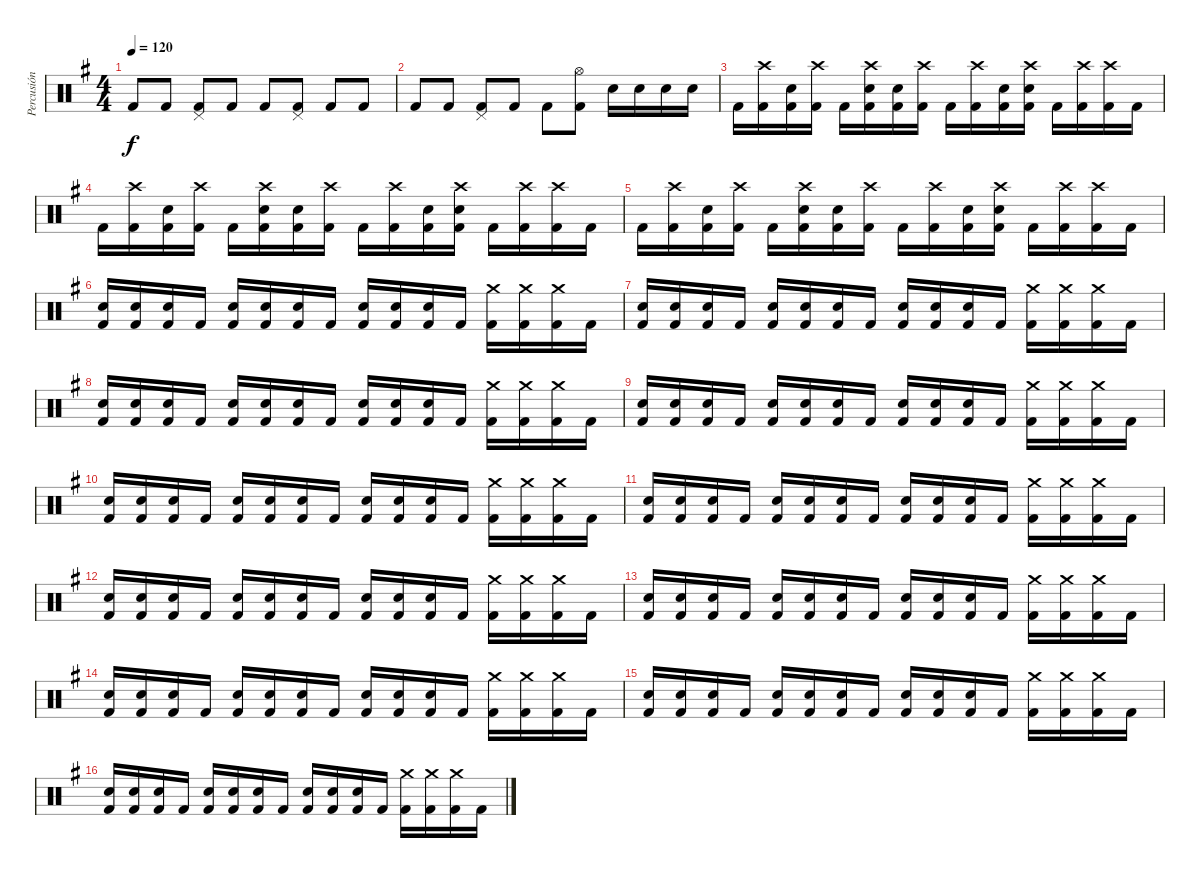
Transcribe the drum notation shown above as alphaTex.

\track ("Percusión" "Percusión") {instrument percussion}
\staff {score}
\articulation defaults
\ts (4 4)
\tempo 120
\clef neutral
\ks g "Kick (hit) 2".8{dy f} "Kick (hit) 2".8
("Pedal Hi-Hat (hit)" "Kick (hit) 2").8 "Kick (hit) 2".8 "Kick (hit) 2".8 ("Pedal Hi-Hat (hit)" "Kick (hit) 2").8 "Kick (hit) 2".8 "Kick (hit) 2".8 |
"Kick (hit) 2".8 "Kick (hit) 2".8 ("Pedal Hi-Hat (hit)" "Kick (hit) 2").8 "Kick (hit) 2".8 "Kick (hit) 2".8 ("Hi-Hat (open)" "Kick (hit) 2").8 "Electric Snare (hit)".16 "Electric Snare (hit)".16 "Electric Snare (hit)".16 "Electric Snare (hit)".16 |
"Kick (hit) 2".16 ("Crash high (hit)" "Kick (hit) 2").16 ("Snare (hit) 2" "Kick (hit) 2").16 ("Crash high (hit)" "Kick (hit) 2").16 "Kick (hit) 2".16 ("Crash high (hit)" "Snare (hit) 2" "Kick (hit) 2").16 ("Snare (hit) 2" "Kick (hit) 2").16 ("Crash high (hit)" "Kick (hit) 2").16 "Kick (hit) 2".16 ("Crash high (hit)" "Kick (hit) 2").16 ("Snare (hit) 2" "Kick (hit) 2").16 ("Crash high (hit)" "Snare (hit) 2" "Kick (hit) 2").16 "Kick (hit) 2".16 ("Crash high (hit)" "Kick (hit) 2").16 ("Crash high (hit)" "Kick (hit) 2").16 "Kick (hit) 2".16 |
"Kick (hit) 2".16 ("Crash high (hit)" "Kick (hit) 2").16 ("Snare (hit) 2" "Kick (hit) 2").16 ("Crash high (hit)" "Kick (hit) 2").16 "Kick (hit) 2".16 ("Crash high (hit)" "Snare (hit) 2" "Kick (hit) 2").16 ("Snare (hit) 2" "Kick (hit) 2").16 ("Crash high (hit)" "Kick (hit) 2").16 "Kick (hit) 2".16 ("Crash high (hit)" "Kick (hit) 2").16 ("Snare (hit) 2" "Kick (hit) 2").16 ("Crash high (hit)" "Snare (hit) 2" "Kick (hit) 2").16 "Kick (hit) 2".16 ("Crash high (hit)" "Kick (hit) 2").16 ("Crash high (hit)" "Kick (hit) 2").16 "Kick (hit) 2".16 |
"Kick (hit) 2".16 ("Crash high (hit)" "Kick (hit) 2").16 ("Snare (hit) 2" "Kick (hit) 2").16 ("Crash high (hit)" "Kick (hit) 2").16 "Kick (hit) 2".16 ("Crash high (hit)" "Snare (hit) 2" "Kick (hit) 2").16 ("Snare (hit) 2" "Kick (hit) 2").16 ("Crash high (hit)" "Kick (hit) 2").16 "Kick (hit) 2".16 ("Crash high (hit)" "Kick (hit) 2").16 ("Snare (hit) 2" "Kick (hit) 2").16 ("Crash high (hit)" "Snare (hit) 2" "Kick (hit) 2").16 "Kick (hit) 2".16 ("Crash high (hit)" "Kick (hit) 2").16 ("Crash high (hit)" "Kick (hit) 2").16 "Kick (hit) 2".16 |
("Snare (hit) 2" "Kick (hit) 2").16 ("Snare (hit) 2" "Kick (hit) 2").16 ("Snare (hit) 2" "Kick (hit) 2").16 "Kick (hit) 2".16 ("Snare (hit) 2" "Kick (hit) 2").16 ("Snare (hit) 2" "Kick (hit) 2").16 ("Snare (hit) 2" "Kick (hit) 2").16 "Kick (hit) 2".16 ("Snare (hit) 2" "Kick (hit) 2").16 ("Snare (hit) 2" "Kick (hit) 2").16 ("Snare (hit) 2" "Kick (hit) 2").16 "Kick (hit) 2".16 ("Crash medium (hit)" "Kick (hit) 2").16 ("Crash medium (hit)" "Kick (hit) 2").16 ("Crash medium (hit)" "Kick (hit) 2").16 "Kick (hit) 2".16 |
("Snare (hit) 2" "Kick (hit) 2").16 ("Snare (hit) 2" "Kick (hit) 2").16 ("Snare (hit) 2" "Kick (hit) 2").16 "Kick (hit) 2".16 ("Snare (hit) 2" "Kick (hit) 2").16 ("Snare (hit) 2" "Kick (hit) 2").16 ("Snare (hit) 2" "Kick (hit) 2").16 "Kick (hit) 2".16 ("Snare (hit) 2" "Kick (hit) 2").16 ("Snare (hit) 2" "Kick (hit) 2").16 ("Snare (hit) 2" "Kick (hit) 2").16 "Kick (hit) 2".16 ("Crash medium (hit)" "Kick (hit) 2").16 ("Crash medium (hit)" "Kick (hit) 2").16 ("Crash medium (hit)" "Kick (hit) 2").16 "Kick (hit) 2".16 |
("Snare (hit) 2" "Kick (hit) 2").16 ("Snare (hit) 2" "Kick (hit) 2").16 ("Snare (hit) 2" "Kick (hit) 2").16 "Kick (hit) 2".16 ("Snare (hit) 2" "Kick (hit) 2").16 ("Snare (hit) 2" "Kick (hit) 2").16 ("Snare (hit) 2" "Kick (hit) 2").16 "Kick (hit) 2".16 ("Snare (hit) 2" "Kick (hit) 2").16 ("Snare (hit) 2" "Kick (hit) 2").16 ("Snare (hit) 2" "Kick (hit) 2").16 "Kick (hit) 2".16 ("Crash medium (hit)" "Kick (hit) 2").16 ("Crash medium (hit)" "Kick (hit) 2").16 ("Crash medium (hit)" "Kick (hit) 2").16 "Kick (hit) 2".16 |
("Snare (hit) 2" "Kick (hit) 2").16 ("Snare (hit) 2" "Kick (hit) 2").16 ("Snare (hit) 2" "Kick (hit) 2").16 "Kick (hit) 2".16 ("Snare (hit) 2" "Kick (hit) 2").16 ("Snare (hit) 2" "Kick (hit) 2").16 ("Snare (hit) 2" "Kick (hit) 2").16 "Kick (hit) 2".16 ("Snare (hit) 2" "Kick (hit) 2").16 ("Snare (hit) 2" "Kick (hit) 2").16 ("Snare (hit) 2" "Kick (hit) 2").16 "Kick (hit) 2".16 ("Crash medium (hit)" "Kick (hit) 2").16 ("Crash medium (hit)" "Kick (hit) 2").16 ("Crash medium (hit)" "Kick (hit) 2").16 "Kick (hit) 2".16 |
("Snare (hit) 2" "Kick (hit) 2").16 ("Snare (hit) 2" "Kick (hit) 2").16 ("Snare (hit) 2" "Kick (hit) 2").16 "Kick (hit) 2".16 ("Snare (hit) 2" "Kick (hit) 2").16 ("Snare (hit) 2" "Kick (hit) 2").16 ("Snare (hit) 2" "Kick (hit) 2").16 "Kick (hit) 2".16 ("Snare (hit) 2" "Kick (hit) 2").16 ("Snare (hit) 2" "Kick (hit) 2").16 ("Snare (hit) 2" "Kick (hit) 2").16 "Kick (hit) 2".16 ("Crash medium (hit)" "Kick (hit) 2").16 ("Crash medium (hit)" "Kick (hit) 2").16 ("Crash medium (hit)" "Kick (hit) 2").16 "Kick (hit) 2".16 |
("Snare (hit) 2" "Kick (hit) 2").16 ("Snare (hit) 2" "Kick (hit) 2").16 ("Snare (hit) 2" "Kick (hit) 2").16 "Kick (hit) 2".16 ("Snare (hit) 2" "Kick (hit) 2").16 ("Snare (hit) 2" "Kick (hit) 2").16 ("Snare (hit) 2" "Kick (hit) 2").16 "Kick (hit) 2".16 ("Snare (hit) 2" "Kick (hit) 2").16 ("Snare (hit) 2" "Kick (hit) 2").16 ("Snare (hit) 2" "Kick (hit) 2").16 "Kick (hit) 2".16 ("Crash medium (hit)" "Kick (hit) 2").16 ("Crash medium (hit)" "Kick (hit) 2").16 ("Crash medium (hit)" "Kick (hit) 2").16 "Kick (hit) 2".16 |
("Snare (hit) 2" "Kick (hit) 2").16 ("Snare (hit) 2" "Kick (hit) 2").16 ("Snare (hit) 2" "Kick (hit) 2").16 "Kick (hit) 2".16 ("Snare (hit) 2" "Kick (hit) 2").16 ("Snare (hit) 2" "Kick (hit) 2").16 ("Snare (hit) 2" "Kick (hit) 2").16 "Kick (hit) 2".16 ("Snare (hit) 2" "Kick (hit) 2").16 ("Snare (hit) 2" "Kick (hit) 2").16 ("Snare (hit) 2" "Kick (hit) 2").16 "Kick (hit) 2".16 ("Crash medium (hit)" "Kick (hit) 2").16 ("Crash medium (hit)" "Kick (hit) 2").16 ("Crash medium (hit)" "Kick (hit) 2").16 "Kick (hit) 2".16 |
("Snare (hit) 2" "Kick (hit) 2").16 ("Snare (hit) 2" "Kick (hit) 2").16 ("Snare (hit) 2" "Kick (hit) 2").16 "Kick (hit) 2".16 ("Snare (hit) 2" "Kick (hit) 2").16 ("Snare (hit) 2" "Kick (hit) 2").16 ("Snare (hit) 2" "Kick (hit) 2").16 "Kick (hit) 2".16 ("Snare (hit) 2" "Kick (hit) 2").16 ("Snare (hit) 2" "Kick (hit) 2").16 ("Snare (hit) 2" "Kick (hit) 2").16 "Kick (hit) 2".16 ("Crash medium (hit)" "Kick (hit) 2").16 ("Crash medium (hit)" "Kick (hit) 2").16 ("Crash medium (hit)" "Kick (hit) 2").16 "Kick (hit) 2".16 |
("Snare (hit) 2" "Kick (hit) 2").16 ("Snare (hit) 2" "Kick (hit) 2").16 ("Snare (hit) 2" "Kick (hit) 2").16 "Kick (hit) 2".16 ("Snare (hit) 2" "Kick (hit) 2").16 ("Snare (hit) 2" "Kick (hit) 2").16 ("Snare (hit) 2" "Kick (hit) 2").16 "Kick (hit) 2".16 ("Snare (hit) 2" "Kick (hit) 2").16 ("Snare (hit) 2" "Kick (hit) 2").16 ("Snare (hit) 2" "Kick (hit) 2").16 "Kick (hit) 2".16 ("Crash medium (hit)" "Kick (hit) 2").16 ("Crash medium (hit)" "Kick (hit) 2").16 ("Crash medium (hit)" "Kick (hit) 2").16 "Kick (hit) 2".16 |
("Snare (hit) 2" "Kick (hit) 2").16 ("Snare (hit) 2" "Kick (hit) 2").16 ("Snare (hit) 2" "Kick (hit) 2").16 "Kick (hit) 2".16 ("Snare (hit) 2" "Kick (hit) 2").16 ("Snare (hit) 2" "Kick (hit) 2").16 ("Snare (hit) 2" "Kick (hit) 2").16 "Kick (hit) 2".16 ("Snare (hit) 2" "Kick (hit) 2").16 ("Snare (hit) 2" "Kick (hit) 2").16 ("Snare (hit) 2" "Kick (hit) 2").16 "Kick (hit) 2".16 ("Crash medium (hit)" "Kick (hit) 2").16 ("Crash medium (hit)" "Kick (hit) 2").16 ("Crash medium (hit)" "Kick (hit) 2").16 "Kick (hit) 2".16 |
("Snare (hit) 2" "Kick (hit) 2").16 ("Snare (hit) 2" "Kick (hit) 2").16 ("Snare (hit) 2" "Kick (hit) 2").16 "Kick (hit) 2".16 ("Snare (hit) 2" "Kick (hit) 2").16 ("Snare (hit) 2" "Kick (hit) 2").16 ("Snare (hit) 2" "Kick (hit) 2").16 "Kick (hit) 2".16 ("Snare (hit) 2" "Kick (hit) 2").16 ("Snare (hit) 2" "Kick (hit) 2").16 ("Snare (hit) 2" "Kick (hit) 2").16 "Kick (hit) 2".16 ("Crash medium (hit)" "Kick (hit) 2").16 ("Crash medium (hit)" "Kick (hit) 2").16 ("Crash medium (hit)" "Kick (hit) 2").16 "Kick (hit) 2".16
